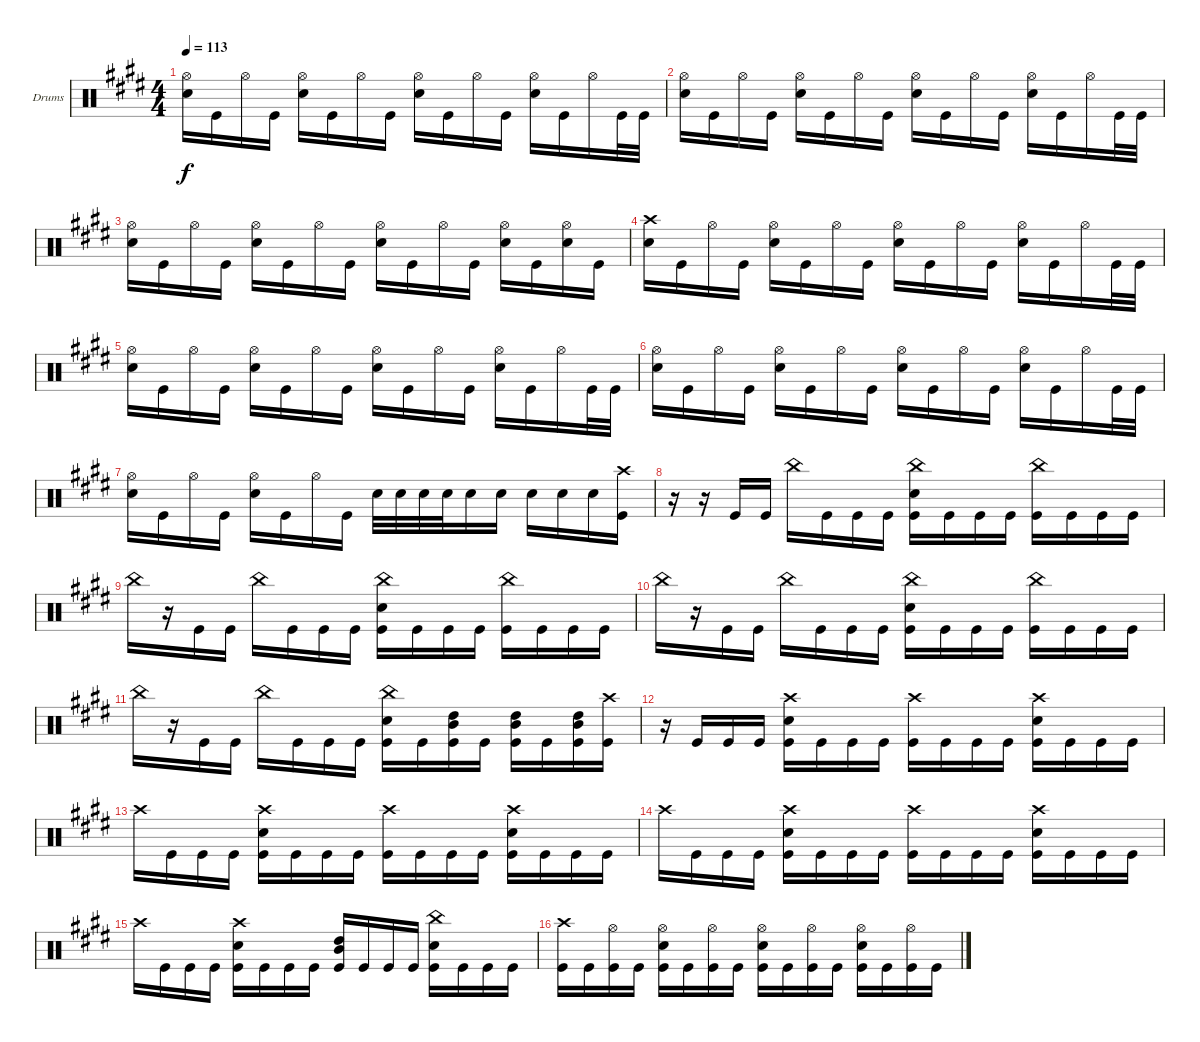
\bracketExtendMode groupsimilarinstruments
\firstSystemTrackNameOrientation horizontal
\otherSystemsTrackNameOrientation horizontal
\track ("Drumkit" "Drums") {instrument percussion}
\staff {score}
\articulation defaults
\ts (4 4)
\tempo 113
\clef neutral
\ks e
("Snare (hit) 2" "Hi-Hat (open)").16{dy f} "Kick (hit)".16 "Hi-Hat (open)".16 "Kick (hit)".16 ("Snare (hit) 2" "Hi-Hat (open)").16 "Kick (hit)".16 "Hi-Hat (open)".16 "Kick (hit)".16 ("Snare (hit) 2" "Hi-Hat (open)").16 "Kick (hit)".16 "Hi-Hat (open)".16 "Kick (hit)".16 ("Snare (hit) 2" "Hi-Hat (open)").16 "Kick (hit)".16 "Hi-Hat (open)".16 "Kick (hit)".32 "Kick (hit)".32 |
("Snare (hit) 2" "Hi-Hat (open)").16 "Kick (hit)".16 "Hi-Hat (open)".16 "Kick (hit)".16 ("Snare (hit) 2" "Hi-Hat (open)").16 "Kick (hit)".16 "Hi-Hat (open)".16 "Kick (hit)".16 ("Snare (hit) 2" "Hi-Hat (open)").16 "Kick (hit)".16 "Hi-Hat (open)".16 "Kick (hit)".16 ("Snare (hit) 2" "Hi-Hat (open)").16 "Kick (hit)".16 "Hi-Hat (open)".16 "Kick (hit)".32 "Kick (hit)".32 |
("Snare (hit) 2" "Hi-Hat (open)").16 "Kick (hit)".16 "Hi-Hat (open)".16 "Kick (hit)".16 ("Snare (hit) 2" "Hi-Hat (open)").16 "Kick (hit)".16 "Hi-Hat (open)".16 "Kick (hit)".16 ("Snare (hit) 2" "Hi-Hat (open)").16 "Kick (hit)".16 "Hi-Hat (open)".16 "Kick (hit)".16 ("Snare (hit) 2" "Hi-Hat (open)").16 "Kick (hit)".16 ("Hi-Hat (open)" "Snare (hit) 2").16 "Kick (hit)".16 |
("Snare (hit) 2" "Crash high (hit)").16 "Kick (hit)".16 "Hi-Hat (open)".16 "Kick (hit)".16 ("Snare (hit) 2" "Hi-Hat (open)").16 "Kick (hit)".16 "Hi-Hat (open)".16 "Kick (hit)".16 ("Snare (hit) 2" "Hi-Hat (open)").16 "Kick (hit)".16 "Hi-Hat (open)".16 "Kick (hit)".16 ("Snare (hit) 2" "Hi-Hat (open)").16 "Kick (hit)".16 "Hi-Hat (open)".16 "Kick (hit)".32 "Kick (hit)".32 |
("Snare (hit) 2" "Hi-Hat (open)").16 "Kick (hit)".16 "Hi-Hat (open)".16 "Kick (hit)".16 ("Snare (hit) 2" "Hi-Hat (open)").16 "Kick (hit)".16 "Hi-Hat (open)".16 "Kick (hit)".16 ("Snare (hit) 2" "Hi-Hat (open)").16 "Kick (hit)".16 "Hi-Hat (open)".16 "Kick (hit)".16 ("Snare (hit) 2" "Hi-Hat (open)").16 "Kick (hit)".16 "Hi-Hat (open)".16 "Kick (hit)".32 "Kick (hit)".32 |
("Snare (hit) 2" "Hi-Hat (open)").16 "Kick (hit)".16 "Hi-Hat (open)".16 "Kick (hit)".16 ("Snare (hit) 2" "Hi-Hat (open)").16 "Kick (hit)".16 "Hi-Hat (open)".16 "Kick (hit)".16 ("Snare (hit) 2" "Hi-Hat (open)").16 "Kick (hit)".16 "Hi-Hat (open)".16 "Kick (hit)".16 ("Snare (hit) 2" "Hi-Hat (open)").16 "Kick (hit)".16 "Hi-Hat (open)".16 "Kick (hit)".32 "Kick (hit)".32 |
("Snare (hit) 2" "Hi-Hat (open)").16 "Kick (hit)".16 "Hi-Hat (open)".16 "Kick (hit)".16 ("Snare (hit) 2" "Hi-Hat (open)").16 "Kick (hit)".16 "Hi-Hat (open)".16 "Kick (hit)".16 "Snare (hit) 2".32 "Snare (hit) 2".32 "Snare (hit) 2".32 "Snare (hit) 2".32 "Snare (hit) 2".16 "Snare (hit) 2".16 "Snare (hit) 2".16 "Snare (hit) 2".16 "Snare (hit) 2".16 ("Kick (hit)" "Crash high (hit)").16 |
r.16 r.16 "Kick (hit)".16 "Kick (hit)".16 "China (hit)".16 "Kick (hit)".16 "Kick (hit)".16 "Kick (hit)".16 ("Kick (hit)" "Snare (hit) 2" "China (hit)").16 "Kick (hit)".16 "Kick (hit)".16 "Kick (hit)".16 ("Kick (hit)" "China (hit)").16 "Kick (hit)".16 "Kick (hit)".16 "Kick (hit)".16 |
"China (hit)".16 r.16 "Kick (hit)".16 "Kick (hit)".16 "China (hit)".16 "Kick (hit)".16 "Kick (hit)".16 "Kick (hit)".16 ("Kick (hit)" "Snare (hit) 2" "China (hit)").16 "Kick (hit)".16 "Kick (hit)".16 "Kick (hit)".16 ("Kick (hit)" "China (hit)").16 "Kick (hit)".16 "Kick (hit)".16 "Kick (hit)".16 |
"China (hit)".16 r.16 "Kick (hit)".16 "Kick (hit)".16 "China (hit)".16 "Kick (hit)".16 "Kick (hit)".16 "Kick (hit)".16 ("Kick (hit)" "Snare (hit) 2" "China (hit)").16 "Kick (hit)".16 "Kick (hit)".16 "Kick (hit)".16 ("Kick (hit)" "China (hit)").16 "Kick (hit)".16 "Kick (hit)".16 "Kick (hit)".16 |
"China (hit)".16 r.16 "Kick (hit)".16 "Kick (hit)".16 "China (hit)".16 "Kick (hit)".16 "Kick (hit)".16 "Kick (hit)".16 ("Kick (hit)" "Snare (hit) 2" "China (hit)").16 "Kick (hit)".16 ("Kick (hit)" "High Tom (hit)" "Mid Tom (hit)").16 "Kick (hit)".16 ("Kick (hit)" "High Tom (hit)" "Mid Tom (hit)").16 "Kick (hit)".16 ("Kick (hit)" "High Tom (hit)" "Mid Tom (hit)").16 ("Kick (hit)" "Crash high (hit)").16 |
r.16 "Kick (hit)".16 "Kick (hit)".16 "Kick (hit)".16 ("Snare (hit) 2" "Kick (hit)" "Crash high (hit)").16 "Kick (hit)".16 "Kick (hit)".16 "Kick (hit)".16 ("Kick (hit)" "Crash high (hit)").16 "Kick (hit)".16 "Kick (hit)".16 "Kick (hit)".16 ("Kick (hit)" "Crash high (hit)" "Snare (hit) 2").16 "Kick (hit)".16 "Kick (hit)".16 "Kick (hit)".16 |
"Crash high (hit)".16 "Kick (hit)".16 "Kick (hit)".16 "Kick (hit)".16 ("Snare (hit) 2" "Kick (hit)" "Crash high (hit)").16 "Kick (hit)".16 "Kick (hit)".16 "Kick (hit)".16 ("Kick (hit)" "Crash high (hit)").16 "Kick (hit)".16 "Kick (hit)".16 "Kick (hit)".16 ("Kick (hit)" "Crash high (hit)" "Snare (hit) 2").16 "Kick (hit)".16 "Kick (hit)".16 "Kick (hit)".16 |
"Crash high (hit)".16 "Kick (hit)".16 "Kick (hit)".16 "Kick (hit)".16 ("Snare (hit) 2" "Kick (hit)" "Crash high (hit)").16 "Kick (hit)".16 "Kick (hit)".16 "Kick (hit)".16 ("Kick (hit)" "Crash high (hit)").16 "Kick (hit)".16 "Kick (hit)".16 "Kick (hit)".16 ("Kick (hit)" "Crash high (hit)" "Snare (hit) 2").16 "Kick (hit)".16 "Kick (hit)".16 "Kick (hit)".16 |
"Crash high (hit)".16 "Kick (hit)".16 "Kick (hit)".16 "Kick (hit)".16 ("Snare (hit) 2" "Kick (hit)" "Crash high (hit)").16 "Kick (hit)".16 "Kick (hit)".16 "Kick (hit)".16 ("Mid Tom (hit)" "High Tom (hit)" "Kick (hit)").16 "Kick (hit)".16 "Kick (hit)".16 "Kick (hit)".16 ("Snare (hit) 2" "China (hit)" "Kick (hit)").16 "Kick (hit)".16 "Kick (hit)".16 "Kick (hit)".16 |
("Crash high (hit)" "Kick (hit)").16 "Kick (hit)".16 ("Kick (hit)" "Hi-Hat (open)").16 "Kick (hit)".16 ("Snare (hit) 2" "Hi-Hat (open)" "Kick (hit)").16 "Kick (hit)".16 ("Kick (hit)" "Hi-Hat (open)").16 "Kick (hit)".16 ("Snare (hit) 2" "Hi-Hat (open)" "Kick (hit)").16 "Kick (hit)".16 ("Kick (hit)" "Hi-Hat (open)").16 "Kick (hit)".16 ("Snare (hit) 2" "Hi-Hat (open)" "Kick (hit)").16 "Kick (hit)".16 ("Kick (hit)" "Hi-Hat (open)").16 "Kick (hit)".16
